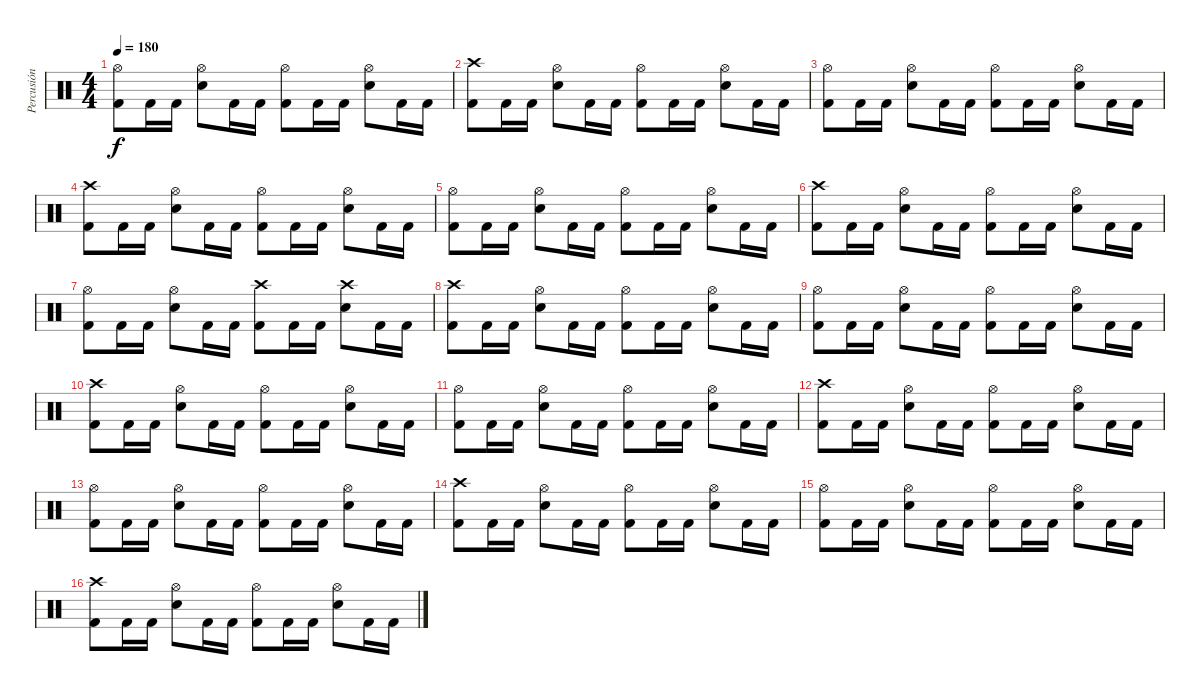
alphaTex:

\track ("Percusión" "Percusión") {instrument percussion}
\staff {score}
\articulation defaults
\ts (4 4)
\tempo 180
\clef neutral
\ks c
("Hi-Hat (open)" "Kick (hit) 2").8{dy f} "Kick (hit) 2".16 "Kick (hit) 2".16 ("Hi-Hat (open)" "Electric Snare (hit)").8 "Kick (hit) 2".16 "Kick (hit) 2".16 ("Hi-Hat (open)" "Kick (hit) 2").8 "Kick (hit) 2".16 "Kick (hit) 2".16 ("Hi-Hat (open)" "Electric Snare (hit)").8 "Kick (hit) 2".16 "Kick (hit) 2".16 |
("Crash high (hit)" "Kick (hit) 2").8 "Kick (hit) 2".16 "Kick (hit) 2".16 ("Hi-Hat (open)" "Electric Snare (hit)").8 "Kick (hit) 2".16 "Kick (hit) 2".16 ("Hi-Hat (open)" "Kick (hit) 2").8 "Kick (hit) 2".16 "Kick (hit) 2".16 ("Hi-Hat (open)" "Electric Snare (hit)").8 "Kick (hit) 2".16 "Kick (hit) 2".16 |
("Hi-Hat (open)" "Kick (hit) 2").8 "Kick (hit) 2".16 "Kick (hit) 2".16 ("Hi-Hat (open)" "Electric Snare (hit)").8 "Kick (hit) 2".16 "Kick (hit) 2".16 ("Hi-Hat (open)" "Kick (hit) 2").8 "Kick (hit) 2".16 "Kick (hit) 2".16 ("Hi-Hat (open)" "Electric Snare (hit)").8 "Kick (hit) 2".16 "Kick (hit) 2".16 |
("Crash high (hit)" "Kick (hit) 2").8 "Kick (hit) 2".16 "Kick (hit) 2".16 ("Hi-Hat (open)" "Electric Snare (hit)").8 "Kick (hit) 2".16 "Kick (hit) 2".16 ("Hi-Hat (open)" "Kick (hit) 2").8 "Kick (hit) 2".16 "Kick (hit) 2".16 ("Hi-Hat (open)" "Electric Snare (hit)").8 "Kick (hit) 2".16 "Kick (hit) 2".16 |
("Hi-Hat (open)" "Kick (hit) 2").8 "Kick (hit) 2".16 "Kick (hit) 2".16 ("Hi-Hat (open)" "Electric Snare (hit)").8 "Kick (hit) 2".16 "Kick (hit) 2".16 ("Hi-Hat (open)" "Kick (hit) 2").8 "Kick (hit) 2".16 "Kick (hit) 2".16 ("Hi-Hat (open)" "Electric Snare (hit)").8 "Kick (hit) 2".16 "Kick (hit) 2".16 |
("Crash high (hit)" "Kick (hit) 2").8 "Kick (hit) 2".16 "Kick (hit) 2".16 ("Hi-Hat (open)" "Electric Snare (hit)").8 "Kick (hit) 2".16 "Kick (hit) 2".16 ("Hi-Hat (open)" "Kick (hit) 2").8 "Kick (hit) 2".16 "Kick (hit) 2".16 ("Hi-Hat (open)" "Electric Snare (hit)").8 "Kick (hit) 2".16 "Kick (hit) 2".16 |
("Hi-Hat (open)" "Kick (hit) 2").8 "Kick (hit) 2".16 "Kick (hit) 2".16 ("Hi-Hat (open)" "Electric Snare (hit)").8 "Kick (hit) 2".16 "Kick (hit) 2".16 ("Crash high (hit)" "Kick (hit) 2").8 "Kick (hit) 2".16 "Kick (hit) 2".16 ("Crash high (hit)" "Electric Snare (hit)").8 "Kick (hit) 2".16 "Kick (hit) 2".16 |
("Crash high (hit)" "Kick (hit) 2").8 "Kick (hit) 2".16 "Kick (hit) 2".16 ("Hi-Hat (open)" "Electric Snare (hit)").8 "Kick (hit) 2".16 "Kick (hit) 2".16 ("Hi-Hat (open)" "Kick (hit) 2").8 "Kick (hit) 2".16 "Kick (hit) 2".16 ("Hi-Hat (open)" "Electric Snare (hit)").8 "Kick (hit) 2".16 "Kick (hit) 2".16 |
("Hi-Hat (open)" "Kick (hit) 2").8 "Kick (hit) 2".16 "Kick (hit) 2".16 ("Hi-Hat (open)" "Electric Snare (hit)").8 "Kick (hit) 2".16 "Kick (hit) 2".16 ("Hi-Hat (open)" "Kick (hit) 2").8 "Kick (hit) 2".16 "Kick (hit) 2".16 ("Hi-Hat (open)" "Electric Snare (hit)").8 "Kick (hit) 2".16 "Kick (hit) 2".16 |
("Crash high (hit)" "Kick (hit) 2").8 "Kick (hit) 2".16 "Kick (hit) 2".16 ("Hi-Hat (open)" "Electric Snare (hit)").8 "Kick (hit) 2".16 "Kick (hit) 2".16 ("Hi-Hat (open)" "Kick (hit) 2").8 "Kick (hit) 2".16 "Kick (hit) 2".16 ("Hi-Hat (open)" "Electric Snare (hit)").8 "Kick (hit) 2".16 "Kick (hit) 2".16 |
("Hi-Hat (open)" "Kick (hit) 2").8 "Kick (hit) 2".16 "Kick (hit) 2".16 ("Hi-Hat (open)" "Electric Snare (hit)").8 "Kick (hit) 2".16 "Kick (hit) 2".16 ("Hi-Hat (open)" "Kick (hit) 2").8 "Kick (hit) 2".16 "Kick (hit) 2".16 ("Hi-Hat (open)" "Electric Snare (hit)").8 "Kick (hit) 2".16 "Kick (hit) 2".16 |
("Crash high (hit)" "Kick (hit) 2").8 "Kick (hit) 2".16 "Kick (hit) 2".16 ("Hi-Hat (open)" "Electric Snare (hit)").8 "Kick (hit) 2".16 "Kick (hit) 2".16 ("Hi-Hat (open)" "Kick (hit) 2").8 "Kick (hit) 2".16 "Kick (hit) 2".16 ("Hi-Hat (open)" "Electric Snare (hit)").8 "Kick (hit) 2".16 "Kick (hit) 2".16 |
("Hi-Hat (open)" "Kick (hit) 2").8 "Kick (hit) 2".16 "Kick (hit) 2".16 ("Hi-Hat (open)" "Electric Snare (hit)").8 "Kick (hit) 2".16 "Kick (hit) 2".16 ("Hi-Hat (open)" "Kick (hit) 2").8 "Kick (hit) 2".16 "Kick (hit) 2".16 ("Hi-Hat (open)" "Electric Snare (hit)").8 "Kick (hit) 2".16 "Kick (hit) 2".16 |
("Crash high (hit)" "Kick (hit) 2").8 "Kick (hit) 2".16 "Kick (hit) 2".16 ("Hi-Hat (open)" "Electric Snare (hit)").8 "Kick (hit) 2".16 "Kick (hit) 2".16 ("Hi-Hat (open)" "Kick (hit) 2").8 "Kick (hit) 2".16 "Kick (hit) 2".16 ("Hi-Hat (open)" "Electric Snare (hit)").8 "Kick (hit) 2".16 "Kick (hit) 2".16 |
("Hi-Hat (open)" "Kick (hit) 2").8 "Kick (hit) 2".16 "Kick (hit) 2".16 ("Hi-Hat (open)" "Electric Snare (hit)").8 "Kick (hit) 2".16 "Kick (hit) 2".16 ("Hi-Hat (open)" "Kick (hit) 2").8 "Kick (hit) 2".16 "Kick (hit) 2".16 ("Hi-Hat (open)" "Electric Snare (hit)").8 "Kick (hit) 2".16 "Kick (hit) 2".16 |
("Crash high (hit)" "Kick (hit) 2").8 "Kick (hit) 2".16 "Kick (hit) 2".16 ("Hi-Hat (open)" "Electric Snare (hit)").8 "Kick (hit) 2".16 "Kick (hit) 2".16 ("Hi-Hat (open)" "Kick (hit) 2").8 "Kick (hit) 2".16 "Kick (hit) 2".16 ("Hi-Hat (open)" "Electric Snare (hit)").8 "Kick (hit) 2".16 "Kick (hit) 2".16
